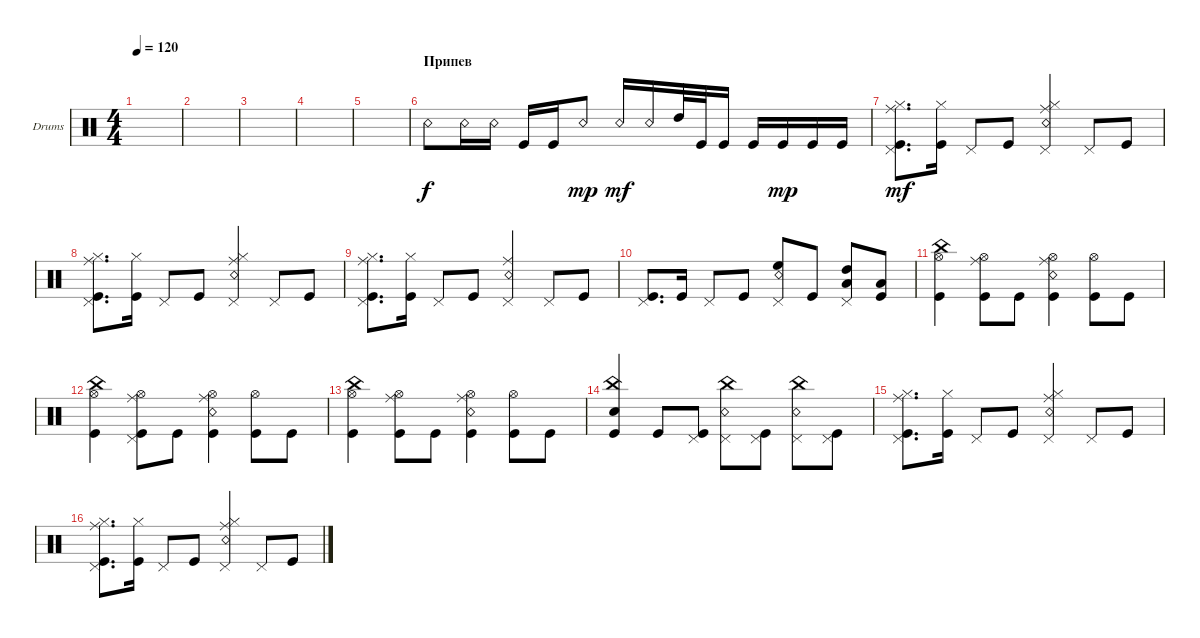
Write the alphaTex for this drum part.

\defaultSystemsLayout 4
\bracketExtendMode groupsimilarinstruments
\firstSystemTrackNameOrientation horizontal
\otherSystemsTrackNameOrientation horizontal
\track ("Drumkit" "Drums") {instrument percussion}
\staff {score}
\articulation defaults
\ts (4 4)
\tempo 120
\clef neutral
\ks c
|
|
|
|
|
\section ("" "Припев")
"Snare (rim shot)".8 "Snare (rim shot)".16{dy f} "Snare (rim shot)".16 "Kick (hit)".16 "Kick (hit)".16 "Snare (rim shot)".8{dy mp} "Snare (rim shot)".16{dy mf} "Snare (rim shot)".16 "High Tom (hit)".32 "Kick (hit)".32 "Kick (hit)".16 "Kick (hit)".16 "Kick (hit)".16{dy mp} "Kick (hit)".16 "Kick (hit)".16 |
("Kick (hit)" "Ride (middle)" "Hi-Hat (closed)" "Pedal Hi-Hat (hit)").8{d dy mf} ("Kick (hit)" "Hi-Hat (closed)").16 "Pedal Hi-Hat (hit)".8 "Kick (hit)".8 ("Snare (rim shot)" "Ride (middle)" "Hi-Hat (closed)" "Pedal Hi-Hat (hit)").4 "Pedal Hi-Hat (hit)".8 "Kick (hit)".8 |
("Kick (hit)" "Ride (middle)" "Hi-Hat (closed)" "Pedal Hi-Hat (hit)").8{d} ("Kick (hit)" "Hi-Hat (closed)").16 "Pedal Hi-Hat (hit)".8 "Kick (hit)".8 ("Snare (rim shot)" "Ride (middle)" "Hi-Hat (closed)" "Pedal Hi-Hat (hit)").4 "Pedal Hi-Hat (hit)".8 "Kick (hit)".8 |
("Kick (hit)" "Ride (middle)" "Hi-Hat (closed)" "Pedal Hi-Hat (hit)").8{d} ("Kick (hit)" "Hi-Hat (closed)").16 "Pedal Hi-Hat (hit)".8 "Kick (hit)".8 ("Snare (rim shot)" "Ride (middle)" "Pedal Hi-Hat (hit)").4 "Pedal Hi-Hat (hit)".8 "Kick (hit)".8 |
("Kick (hit)" "Pedal Hi-Hat (hit)").8{d} "Kick (hit)".16 "Pedal Hi-Hat (hit)".8 "Kick (hit)".8 ("Snare (rim shot)" "Pedal Hi-Hat (hit)" "High Floor Tom (hit)").8 "Kick (hit)".8 ("High Tom (hit)" "Pedal Hi-Hat (hit)" "Low Tom (hit)").8 ("Kick (hit)" "Low Tom (hit)").8 |
("Kick (hit)" "Hi-Hat (open)" "China (hit)").4 ("Kick (hit)" "Hi-Hat (open)" "Ride (middle)").8 "Kick (hit)".8 ("Kick (hit)" "Snare (rim shot)" "Hi-Hat (open)" "Ride (middle)").4 ("Kick (hit)" "Hi-Hat (open)").8 "Kick (hit)".8 |
("Kick (hit)" "Hi-Hat (open)" "China (hit)").4 ("Kick (hit)" "Hi-Hat (open)" "Pedal Hi-Hat (hit)" "Ride (middle)").8 "Kick (hit)".8 ("Kick (hit)" "Snare (rim shot)" "Hi-Hat (open)" "Ride (middle)").4 ("Kick (hit)" "Hi-Hat (open)").8 "Kick (hit)".8 |
("Kick (hit)" "Hi-Hat (open)" "China (hit)").4 ("Kick (hit)" "Hi-Hat (open)" "Ride (middle)").8 "Kick (hit)".8 ("Kick (hit)" "Snare (rim shot)" "Hi-Hat (open)" "Ride (middle)").4 ("Kick (hit)" "Hi-Hat (open)").8 "Kick (hit)".8 |
("Kick (hit)" "Snare (hit) 2" "China (hit)").4 "Kick (hit)".8 ("Kick (hit)" "Pedal Hi-Hat (hit)").8 ("Snare (rim shot)" "Pedal Hi-Hat (hit)" "China (hit)").8 ("Kick (hit)" "Pedal Hi-Hat (hit)").8 ("Snare (rim shot)" "Pedal Hi-Hat (hit)" "China (hit)").8 ("Kick (hit)" "Pedal Hi-Hat (hit)").8 |
("Kick (hit)" "Ride (middle)" "Hi-Hat (closed)" "Pedal Hi-Hat (hit)").8{d} ("Kick (hit)" "Hi-Hat (closed)").16 "Pedal Hi-Hat (hit)".8 "Kick (hit)".8 ("Snare (rim shot)" "Ride (middle)" "Hi-Hat (closed)" "Pedal Hi-Hat (hit)").4 "Pedal Hi-Hat (hit)".8 "Kick (hit)".8 |
("Kick (hit)" "Ride (middle)" "Hi-Hat (closed)" "Pedal Hi-Hat (hit)").8{d} ("Kick (hit)" "Hi-Hat (closed)").16 "Pedal Hi-Hat (hit)".8 "Kick (hit)".8 ("Snare (rim shot)" "Ride (middle)" "Hi-Hat (closed)" "Pedal Hi-Hat (hit)").4 "Pedal Hi-Hat (hit)".8 "Kick (hit)".8
